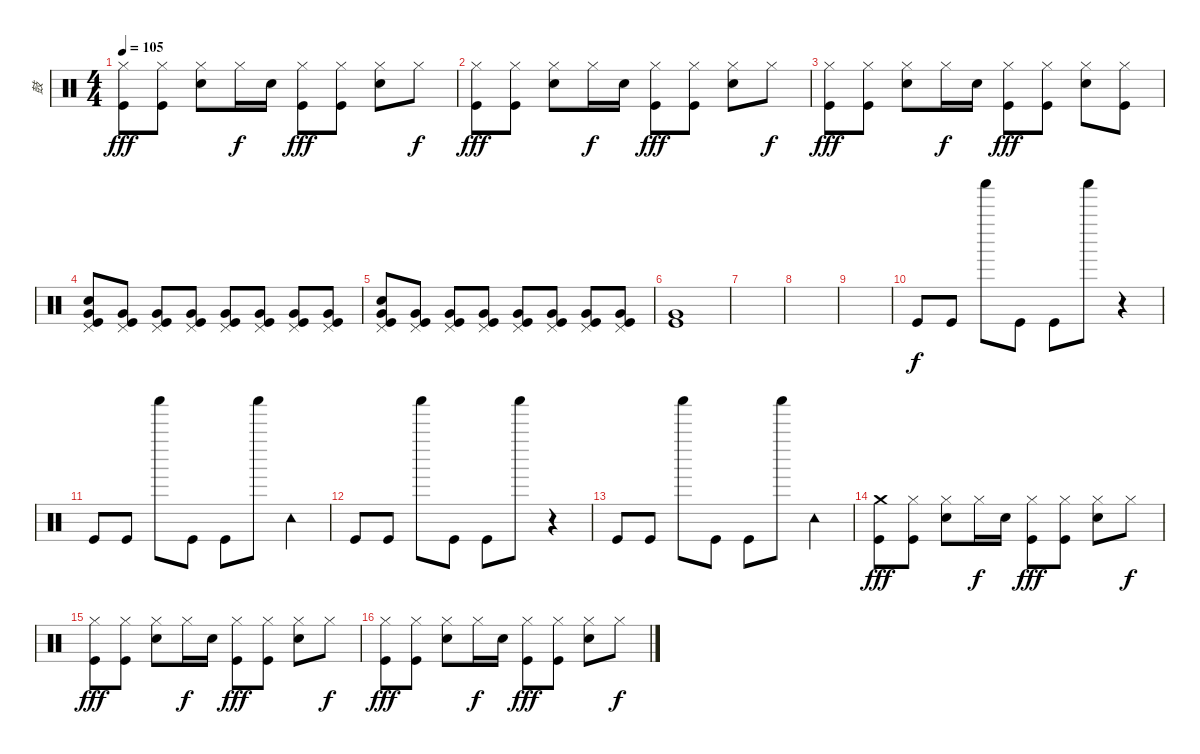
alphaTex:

\track ("鼓" "鼓") {instrument percussion}
\staff {score}
\articulation defaults
\ts (4 4)
\tempo 105
\clef neutral
\ks c
("Hi-Hat (closed)" "Kick (hit)").8{dy fff} ("Hi-Hat (closed)" "Kick (hit)").8 ("Hi-Hat (closed)" "Electric Snare (hit)").8 "Hi-Hat (closed)".16{dy f} "Electric Snare (hit)".16 ("Hi-Hat (closed)" "Kick (hit)").8{dy fff} ("Hi-Hat (closed)" "Kick (hit)").8 ("Hi-Hat (closed)" "Electric Snare (hit)").8 "Hi-Hat (closed)".8{dy f} |
("Hi-Hat (closed)" "Kick (hit)").8{dy fff} ("Hi-Hat (closed)" "Kick (hit)").8 ("Hi-Hat (closed)" "Electric Snare (hit)").8 "Hi-Hat (closed)".16{dy f} "Electric Snare (hit)".16 ("Hi-Hat (closed)" "Kick (hit)").8{dy fff} ("Hi-Hat (closed)" "Kick (hit)").8 ("Hi-Hat (closed)" "Electric Snare (hit)").8 "Hi-Hat (closed)".8{dy f} |
("Hi-Hat (closed)" "Kick (hit)").8{dy fff} ("Hi-Hat (closed)" "Kick (hit)").8 ("Hi-Hat (closed)" "Electric Snare (hit)").8 "Hi-Hat (closed)".16{dy f} "Electric Snare (hit)".16 ("Hi-Hat (closed)" "Kick (hit)").8{dy fff} ("Hi-Hat (closed)" "Kick (hit)").8 ("Hi-Hat (closed)" "Electric Snare (hit)").8 ("Hi-Hat (closed)" "Kick (hit)").8 |
("Pedal Hi-Hat (hit)" "Very Low Tom (hit)" "Kick (hit)" "Electric Snare (hit)").8 ("Pedal Hi-Hat (hit)" "Very Low Tom (hit)" "Kick (hit)").8 ("Pedal Hi-Hat (hit)" "Very Low Tom (hit)" "Kick (hit)").8 ("Pedal Hi-Hat (hit)" "Very Low Tom (hit)" "Kick (hit)").8 ("Pedal Hi-Hat (hit)" "Very Low Tom (hit)" "Kick (hit)").8 ("Pedal Hi-Hat (hit)" "Very Low Tom (hit)" "Kick (hit)").8 ("Pedal Hi-Hat (hit)" "Very Low Tom (hit)" "Kick (hit)").8 ("Pedal Hi-Hat (hit)" "Very Low Tom (hit)" "Kick (hit)").8 |
("Pedal Hi-Hat (hit)" "Very Low Tom (hit)" "Kick (hit)" "Electric Snare (hit)").8 ("Pedal Hi-Hat (hit)" "Very Low Tom (hit)" "Kick (hit)").8 ("Pedal Hi-Hat (hit)" "Very Low Tom (hit)" "Kick (hit)").8 ("Pedal Hi-Hat (hit)" "Very Low Tom (hit)" "Kick (hit)").8 ("Pedal Hi-Hat (hit)" "Very Low Tom (hit)" "Kick (hit)").8 ("Pedal Hi-Hat (hit)" "Very Low Tom (hit)" "Kick (hit)").8 ("Pedal Hi-Hat (hit)" "Very Low Tom (hit)" "Kick (hit)").8 ("Pedal Hi-Hat (hit)" "Very Low Tom (hit)" "Kick (hit)").8 |
("Very Low Tom (hit)" "Kick (hit)").1 |
|
|
|
"Kick (hit)".8{dy f volume 6} "Kick (hit)".8 "Shaker (hit)".8 "Kick (hit)".8 "Kick (hit)".8 "Shaker (hit)".8 r.4 |
"Kick (hit)".8 "Kick (hit)".8 "Shaker (hit)".8 "Kick (hit)".8 "Kick (hit)".8 "Shaker (hit)".8 "Tambourine (hit)".4 |
"Kick (hit)".8 "Kick (hit)".8 "Shaker (hit)".8 "Kick (hit)".8 "Kick (hit)".8 "Shaker (hit)".8 r.4 |
"Kick (hit)".8 "Kick (hit)".8 "Shaker (hit)".8 "Kick (hit)".8 "Kick (hit)".8 "Shaker (hit)".8 "Tambourine (hit)".4 |
("Crash medium (hit)" "Kick (hit)").8{dy fff volume 16} ("Hi-Hat (closed)" "Kick (hit)").8 ("Hi-Hat (closed)" "Electric Snare (hit)").8 "Hi-Hat (closed)".16{dy f} "Electric Snare (hit)".16 ("Hi-Hat (closed)" "Kick (hit)").8{dy fff} ("Hi-Hat (closed)" "Kick (hit)").8 ("Hi-Hat (closed)" "Electric Snare (hit)").8 "Hi-Hat (closed)".8{dy f} |
("Hi-Hat (closed)" "Kick (hit)").8{dy fff} ("Hi-Hat (closed)" "Kick (hit)").8 ("Hi-Hat (closed)" "Electric Snare (hit)").8 "Hi-Hat (closed)".16{dy f} "Electric Snare (hit)".16 ("Hi-Hat (closed)" "Kick (hit)").8{dy fff} ("Hi-Hat (closed)" "Kick (hit)").8 ("Hi-Hat (closed)" "Electric Snare (hit)").8 "Hi-Hat (closed)".8{dy f} |
("Hi-Hat (closed)" "Kick (hit)").8{dy fff} ("Hi-Hat (closed)" "Kick (hit)").8 ("Hi-Hat (closed)" "Electric Snare (hit)").8 "Hi-Hat (closed)".16{dy f} "Electric Snare (hit)".16 ("Hi-Hat (closed)" "Kick (hit)").8{dy fff} ("Hi-Hat (closed)" "Kick (hit)").8 ("Hi-Hat (closed)" "Electric Snare (hit)").8 "Hi-Hat (closed)".8{dy f}
